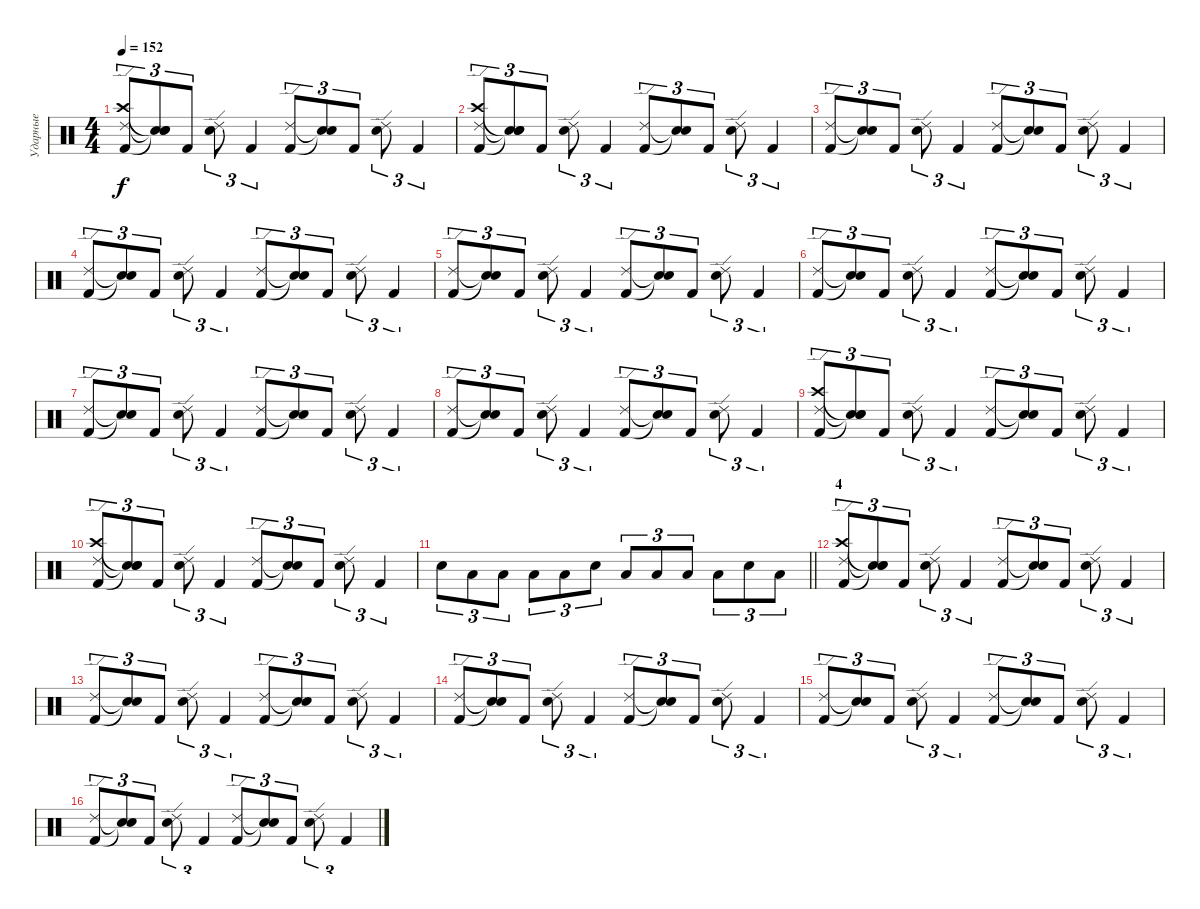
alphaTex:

\track ("Ударные" "Ударные") {instrument percussion}
\staff {score}
\articulation defaults
\ts (4 4)
\tempo 152
\clef neutral
\ks c
("Kick (hit) 2" "Crash high (hit)" "Ride (edge) 2").8{tu (3 2) dy f} ("Snare (hit)"{t} "Snare (hit)"{t} "Snare (hit)"{t}).8{tu (3 2)} "Kick (hit) 2".8{tu (3 2)} ("Electric Snare (hit)" "Ride (edge) 2").8{tu (3 2)} "Kick (hit) 2".4{tu (3 2)} ("Kick (hit) 2" "Ride (edge) 2").8{tu (3 2)} ("Snare (hit)"{t} "Snare (hit)"{t}).8{tu (3 2)} "Kick (hit) 2".8{tu (3 2)} ("Electric Snare (hit)" "Ride (edge) 2").8{tu (3 2)} "Kick (hit) 2".4{tu (3 2)} |
("Kick (hit) 2" "Crash high (hit)" "Ride (edge) 2").8{tu (3 2)} ("Snare (hit)"{t} "Snare (hit)"{t} "Snare (hit)"{t}).8{tu (3 2)} "Kick (hit) 2".8{tu (3 2)} ("Electric Snare (hit)" "Ride (edge) 2").8{tu (3 2)} "Kick (hit) 2".4{tu (3 2)} ("Kick (hit) 2" "Ride (edge) 2").8{tu (3 2)} ("Snare (hit)"{t} "Snare (hit)"{t}).8{tu (3 2)} "Kick (hit) 2".8{tu (3 2)} ("Electric Snare (hit)" "Ride (edge) 2").8{tu (3 2)} "Kick (hit) 2".4{tu (3 2)} |
("Kick (hit) 2" "Ride (edge) 2").8{tu (3 2)} ("Snare (hit)"{t} "Snare (hit)"{t}).8{tu (3 2)} "Kick (hit) 2".8{tu (3 2)} ("Electric Snare (hit)" "Ride (edge) 2").8{tu (3 2)} "Kick (hit) 2".4{tu (3 2)} ("Kick (hit) 2" "Ride (edge) 2").8{tu (3 2)} ("Snare (hit)"{t} "Snare (hit)"{t}).8{tu (3 2)} "Kick (hit) 2".8{tu (3 2)} ("Electric Snare (hit)" "Ride (edge) 2").8{tu (3 2)} "Kick (hit) 2".4{tu (3 2)} |
("Kick (hit) 2" "Ride (edge) 2").8{tu (3 2)} ("Snare (hit)"{t} "Snare (hit)"{t}).8{tu (3 2)} "Kick (hit) 2".8{tu (3 2)} ("Electric Snare (hit)" "Ride (edge) 2").8{tu (3 2)} "Kick (hit) 2".4{tu (3 2)} ("Kick (hit) 2" "Ride (edge) 2").8{tu (3 2)} ("Snare (hit)"{t} "Snare (hit)"{t}).8{tu (3 2)} "Kick (hit) 2".8{tu (3 2)} ("Electric Snare (hit)" "Ride (edge) 2").8{tu (3 2)} "Kick (hit) 2".4{tu (3 2)} |
("Kick (hit) 2" "Ride (edge) 2").8{tu (3 2)} ("Snare (hit)"{t} "Snare (hit)"{t}).8{tu (3 2)} "Kick (hit) 2".8{tu (3 2)} ("Electric Snare (hit)" "Ride (edge) 2").8{tu (3 2)} "Kick (hit) 2".4{tu (3 2)} ("Kick (hit) 2" "Ride (edge) 2").8{tu (3 2)} ("Snare (hit)"{t} "Snare (hit)"{t}).8{tu (3 2)} "Kick (hit) 2".8{tu (3 2)} ("Electric Snare (hit)" "Ride (edge) 2").8{tu (3 2)} "Kick (hit) 2".4{tu (3 2)} |
("Kick (hit) 2" "Ride (edge) 2").8{tu (3 2)} ("Snare (hit)"{t} "Snare (hit)"{t}).8{tu (3 2)} "Kick (hit) 2".8{tu (3 2)} ("Electric Snare (hit)" "Ride (edge) 2").8{tu (3 2)} "Kick (hit) 2".4{tu (3 2)} ("Kick (hit) 2" "Ride (edge) 2").8{tu (3 2)} ("Snare (hit)"{t} "Snare (hit)"{t}).8{tu (3 2)} "Kick (hit) 2".8{tu (3 2)} ("Electric Snare (hit)" "Ride (edge) 2").8{tu (3 2)} "Kick (hit) 2".4{tu (3 2)} |
("Kick (hit) 2" "Ride (edge) 2").8{tu (3 2)} ("Snare (hit)"{t} "Snare (hit)"{t}).8{tu (3 2)} "Kick (hit) 2".8{tu (3 2)} ("Electric Snare (hit)" "Ride (edge) 2").8{tu (3 2)} "Kick (hit) 2".4{tu (3 2)} ("Kick (hit) 2" "Ride (edge) 2").8{tu (3 2)} ("Snare (hit)"{t} "Snare (hit)"{t}).8{tu (3 2)} "Kick (hit) 2".8{tu (3 2)} ("Electric Snare (hit)" "Ride (edge) 2").8{tu (3 2)} "Kick (hit) 2".4{tu (3 2)} |
("Kick (hit) 2" "Ride (edge) 2").8{tu (3 2)} ("Snare (hit)"{t} "Snare (hit)"{t}).8{tu (3 2)} "Kick (hit) 2".8{tu (3 2)} ("Electric Snare (hit)" "Ride (edge) 2").8{tu (3 2)} "Kick (hit) 2".4{tu (3 2)} ("Kick (hit) 2" "Ride (edge) 2").8{tu (3 2)} ("Snare (hit)"{t} "Snare (hit)"{t}).8{tu (3 2)} "Kick (hit) 2".8{tu (3 2)} ("Electric Snare (hit)" "Ride (edge) 2").8{tu (3 2)} "Kick (hit) 2".4{tu (3 2)} |
("Kick (hit) 2" "Crash high (hit)" "Ride (edge) 2").8{tu (3 2)} ("Snare (hit)"{t} "Snare (hit)"{t} "Snare (hit)"{t}).8{tu (3 2)} "Kick (hit) 2".8{tu (3 2)} ("Electric Snare (hit)" "Ride (edge) 2").8{tu (3 2)} "Kick (hit) 2".4{tu (3 2)} ("Kick (hit) 2" "Ride (edge) 2").8{tu (3 2)} ("Snare (hit)"{t} "Snare (hit)"{t}).8{tu (3 2)} "Kick (hit) 2".8{tu (3 2)} ("Electric Snare (hit)" "Ride (edge) 2").8{tu (3 2)} "Kick (hit) 2".4{tu (3 2)} |
("Kick (hit) 2" "Crash high (hit)" "Ride (edge) 2").8{tu (3 2)} ("Snare (hit)"{t} "Snare (hit)"{t} "Snare (hit)"{t}).8{tu (3 2)} "Kick (hit) 2".8{tu (3 2)} ("Electric Snare (hit)" "Ride (edge) 2").8{tu (3 2)} "Kick (hit) 2".4{tu (3 2)} ("Kick (hit) 2" "Ride (edge) 2").8{tu (3 2)} ("Snare (hit)"{t} "Snare (hit)"{t}).8{tu (3 2)} "Kick (hit) 2".8{tu (3 2)} ("Electric Snare (hit)" "Ride (edge) 2").8{tu (3 2)} "Kick (hit) 2".4{tu (3 2)} |
\barLineRight lightlight "Electric Snare (hit)".8{tu (3 2)} "Low Tom (hit)".8{tu (3 2)} "Low Tom (hit)".8{tu (3 2)} "Low Tom (hit)".8{tu (3 2)} "Low Tom (hit)".8{tu (3 2)} "Electric Snare (hit)".8{tu (3 2)} "Low Tom (hit)".8{tu (3 2)} "Low Tom (hit)".8{tu (3 2)} "Low Tom (hit)".8{tu (3 2)} "Low Tom (hit)".8{tu (3 2)} "Electric Snare (hit)".8{tu (3 2)} "Low Tom (hit)".8{tu (3 2)}
|
\section ("" "4")
("Kick (hit) 2" "Crash high (hit)" "Ride (edge) 2").8{tu (3 2)} ("Snare (hit)"{t} "Snare (hit)"{t} "Snare (hit)"{t}).8{tu (3 2)} "Kick (hit) 2".8{tu (3 2)} ("Electric Snare (hit)" "Ride (edge) 2").8{tu (3 2)} "Kick (hit) 2".4{tu (3 2)} ("Kick (hit) 2" "Ride (edge) 2").8{tu (3 2)} ("Snare (hit)"{t} "Snare (hit)"{t}).8{tu (3 2)} "Kick (hit) 2".8{tu (3 2)} ("Electric Snare (hit)" "Ride (edge) 2").8{tu (3 2)} "Kick (hit) 2".4{tu (3 2)} |
("Kick (hit) 2" "Ride (edge) 2").8{tu (3 2)} ("Snare (hit)"{t} "Snare (hit)"{t}).8{tu (3 2)} "Kick (hit) 2".8{tu (3 2)} ("Electric Snare (hit)" "Ride (edge) 2").8{tu (3 2)} "Kick (hit) 2".4{tu (3 2)} ("Kick (hit) 2" "Ride (edge) 2").8{tu (3 2)} ("Snare (hit)"{t} "Snare (hit)"{t}).8{tu (3 2)} "Kick (hit) 2".8{tu (3 2)} ("Electric Snare (hit)" "Ride (edge) 2").8{tu (3 2)} "Kick (hit) 2".4{tu (3 2)} |
("Kick (hit) 2" "Ride (edge) 2").8{tu (3 2)} ("Snare (hit)"{t} "Snare (hit)"{t}).8{tu (3 2)} "Kick (hit) 2".8{tu (3 2)} ("Electric Snare (hit)" "Ride (edge) 2").8{tu (3 2)} "Kick (hit) 2".4{tu (3 2)} ("Kick (hit) 2" "Ride (edge) 2").8{tu (3 2)} ("Snare (hit)"{t} "Snare (hit)"{t}).8{tu (3 2)} "Kick (hit) 2".8{tu (3 2)} ("Electric Snare (hit)" "Ride (edge) 2").8{tu (3 2)} "Kick (hit) 2".4{tu (3 2)} |
("Kick (hit) 2" "Ride (edge) 2").8{tu (3 2)} ("Snare (hit)"{t} "Snare (hit)"{t}).8{tu (3 2)} "Kick (hit) 2".8{tu (3 2)} ("Electric Snare (hit)" "Ride (edge) 2").8{tu (3 2)} "Kick (hit) 2".4{tu (3 2)} ("Kick (hit) 2" "Ride (edge) 2").8{tu (3 2)} ("Snare (hit)"{t} "Snare (hit)"{t}).8{tu (3 2)} "Kick (hit) 2".8{tu (3 2)} ("Electric Snare (hit)" "Ride (edge) 2").8{tu (3 2)} "Kick (hit) 2".4{tu (3 2)} |
("Kick (hit) 2" "Ride (edge) 2").8{tu (3 2)} ("Snare (hit)"{t} "Snare (hit)"{t}).8{tu (3 2)} "Kick (hit) 2".8{tu (3 2)} ("Electric Snare (hit)" "Ride (edge) 2").8{tu (3 2)} "Kick (hit) 2".4{tu (3 2)} ("Kick (hit) 2" "Ride (edge) 2").8{tu (3 2)} ("Snare (hit)"{t} "Snare (hit)"{t}).8{tu (3 2)} "Kick (hit) 2".8{tu (3 2)} ("Electric Snare (hit)" "Ride (edge) 2").8{tu (3 2)} "Kick (hit) 2".4{tu (3 2)}
